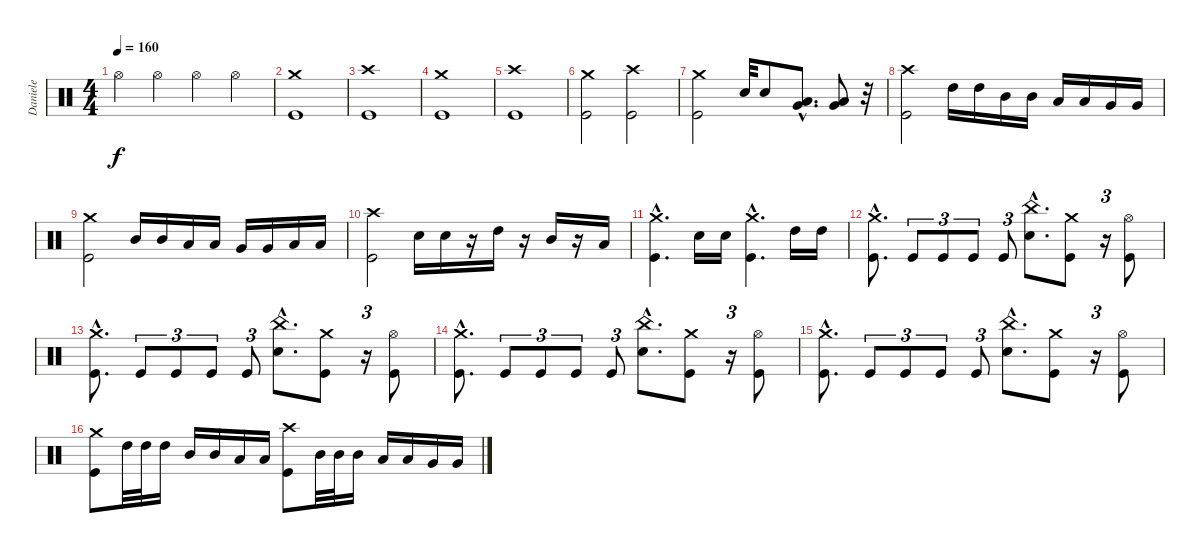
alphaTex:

\track ("Daniele" "Daniele") {instrument percussion}
\staff {score}
\articulation defaults
\ts (4 4)
\tempo 160
\clef neutral
\ks c "Hi-Hat (open)".4{dy f} "Hi-Hat (open)".4 "Hi-Hat (open)".4 "Hi-Hat (open)".4
|
("Kick (hit)" "Crash medium (hit)").1 |
("Kick (hit)" "Crash high (hit)").1 |
("Kick (hit)" "Crash medium (hit)").1 |
("Kick (hit)" "Crash high (hit)").1 |
("Kick (hit)" "Crash medium (hit)").2 ("Kick (hit)" "Crash high (hit)").2 |
("Kick (hit)" "Crash medium (hit)").2 "Electric Snare (hit)".32 "Electric Snare (hit)".8 ("Low Floor Tom (hit)"{hac} "Very Low Tom (hit)"{hac}).8{d} ("Low Floor Tom (hit)" "Very Low Tom (hit)").8 r.32 |
("Kick (hit)" "Crash high (hit)").2 "High Tom (hit)".16 "High Tom (hit)".16 "Mid Tom (hit)".16 "Mid Tom (hit)".16 "Low Tom (hit)".16 "Low Tom (hit)".16 "Very Low Tom (hit)".16 "Very Low Tom (hit)".16 |
("Kick (hit)" "Crash medium (hit)").2 "Mid Tom (hit)".16 "Mid Tom (hit)".16 "Low Tom (hit)".16 "Low Tom (hit)".16 "Very Low Tom (hit)".16 "Very Low Tom (hit)".16 "Low Floor Tom (hit)".16 "Low Floor Tom (hit)".16 |
("Kick (hit)" "Crash high (hit)").2 "Electric Snare (hit)".16 "Electric Snare (hit)".16 r.16 "High Tom (hit)".16 r.16 "Mid Tom (hit)".16 r.16 "Low Tom (hit)".16 |
("Kick (hit)"{hac} "Crash medium (hit)"{hac}).4{d} "Electric Snare (hit)".16 "Electric Snare (hit)".16 ("Kick (hit)"{hac} "Crash medium (hit)"{hac}).4{d} "High Tom (hit)".16 "High Tom (hit)".16 |
("Kick (hit)"{hac} "Crash medium (hit)"{hac}).8{d} "Kick (hit)".8{tu (3 2)} "Kick (hit)".8{tu (3 2)} "Kick (hit)".8{tu (3 2)} "Kick (hit)".8{tu (3 2)} ("Electric Snare (hit)"{hac} "China (hit)"{hac}).8{d} ("Kick (hit)" "Crash medium (hit)").8 r.16{tu (3 2)} ("Kick (hit)" "Hi-Hat (open)").8 |
("Kick (hit)"{hac} "Crash medium (hit)"{hac}).8{d} "Kick (hit)".8{tu (3 2)} "Kick (hit)".8{tu (3 2)} "Kick (hit)".8{tu (3 2)} "Kick (hit)".8{tu (3 2)} ("Electric Snare (hit)"{hac} "China (hit)"{hac}).8{d} ("Kick (hit)" "Crash medium (hit)").8 r.16{tu (3 2)} ("Kick (hit)" "Hi-Hat (open)").8 |
("Kick (hit)"{hac} "Crash medium (hit)"{hac}).8{d} "Kick (hit)".8{tu (3 2)} "Kick (hit)".8{tu (3 2)} "Kick (hit)".8{tu (3 2)} "Kick (hit)".8{tu (3 2)} ("Electric Snare (hit)"{hac} "China (hit)"{hac}).8{d} ("Kick (hit)" "Crash medium (hit)").8 r.16{tu (3 2)} ("Kick (hit)" "Hi-Hat (open)").8 |
("Kick (hit)"{hac} "Crash medium (hit)"{hac}).8{d} "Kick (hit)".8{tu (3 2)} "Kick (hit)".8{tu (3 2)} "Kick (hit)".8{tu (3 2)} "Kick (hit)".8{tu (3 2)} ("Electric Snare (hit)"{hac} "China (hit)"{hac}).8{d} ("Kick (hit)" "Crash medium (hit)").8 r.16{tu (3 2)} ("Kick (hit)" "Hi-Hat (open)").8 |
("Kick (hit)" "Crash medium (hit)").8 "High Tom (hit)".32 "High Tom (hit)".32 "High Tom (hit)".16 "Mid Tom (hit)".16 "Mid Tom (hit)".16 "Low Tom (hit)".16 "Low Tom (hit)".16 ("Kick (hit)" "Crash high (hit)").8 "Mid Tom (hit)".32 "Mid Tom (hit)".32 "Mid Tom (hit)".16 "Low Tom (hit)".16 "Low Tom (hit)".16 "Very Low Tom (hit)".16 "Very Low Tom (hit)".16
